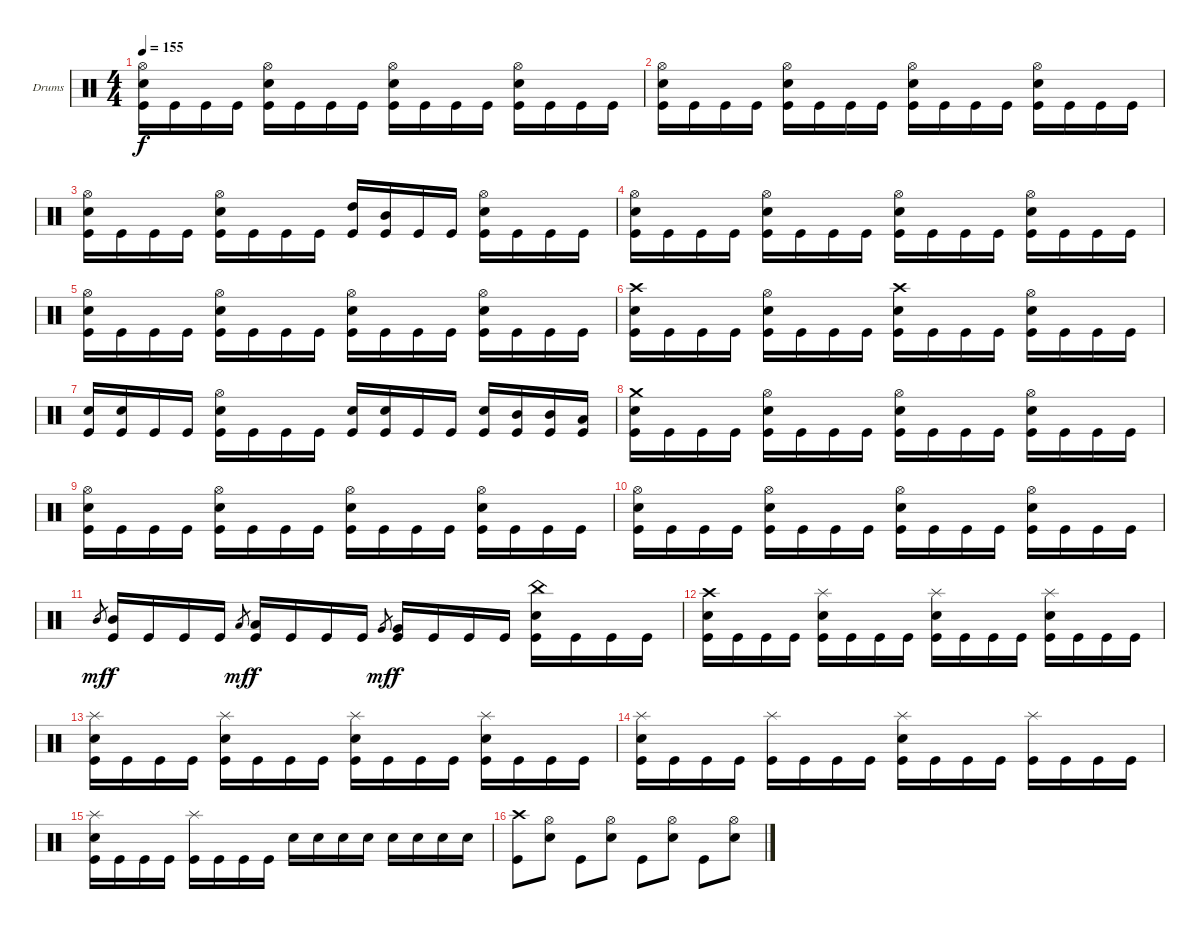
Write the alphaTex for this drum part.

\defaultSystemsLayout 4
\bracketExtendMode groupsimilarinstruments
\firstSystemTrackNameOrientation horizontal
\otherSystemsTrackNameOrientation horizontal
\track ("Drumkit" "Drums") {instrument percussion}
\staff {score}
\articulation defaults
\ts (4 4)
\tempo 155
\clef neutral
\ks c
("Kick (hit)" "Snare (hit) 2" "Hi-Hat (open)").16{dy f} "Kick (hit)".16 "Kick (hit)".16 "Kick (hit)".16 ("Kick (hit)" "Snare (hit) 2" "Hi-Hat (open)").16 "Kick (hit)".16 "Kick (hit)".16 "Kick (hit)".16 ("Kick (hit)" "Snare (hit) 2" "Hi-Hat (open)").16 "Kick (hit)".16 "Kick (hit)".16 "Kick (hit)".16 ("Kick (hit)" "Snare (hit) 2" "Hi-Hat (open)").16 "Kick (hit)".16 "Kick (hit)".16 "Kick (hit)".16 |
("Kick (hit)" "Snare (hit) 2" "Hi-Hat (open)").16 "Kick (hit)".16 "Kick (hit)".16 "Kick (hit)".16 ("Kick (hit)" "Snare (hit) 2" "Hi-Hat (open)").16 "Kick (hit)".16 "Kick (hit)".16 "Kick (hit)".16 ("Kick (hit)" "Snare (hit) 2" "Hi-Hat (open)").16 "Kick (hit)".16 "Kick (hit)".16 "Kick (hit)".16 ("Kick (hit)" "Snare (hit) 2" "Hi-Hat (open)").16 "Kick (hit)".16 "Kick (hit)".16 "Kick (hit)".16 |
("Kick (hit)" "Snare (hit) 2" "Hi-Hat (open)").16 "Kick (hit)".16 "Kick (hit)".16 "Kick (hit)".16 ("Kick (hit)" "Snare (hit) 2" "Hi-Hat (open)").16 "Kick (hit)".16 "Kick (hit)".16 "Kick (hit)".16 ("Kick (hit)" "High Tom (hit)").16 ("Kick (hit)" "Mid Tom (hit)").16 "Kick (hit)".16 "Kick (hit)".16 ("Kick (hit)" "Snare (hit) 2" "Hi-Hat (open)").16 "Kick (hit)".16 "Kick (hit)".16 "Kick (hit)".16 |
("Kick (hit)" "Snare (hit) 2" "Hi-Hat (open)").16 "Kick (hit)".16 "Kick (hit)".16 "Kick (hit)".16 ("Kick (hit)" "Snare (hit) 2" "Hi-Hat (open)").16 "Kick (hit)".16 "Kick (hit)".16 "Kick (hit)".16 ("Kick (hit)" "Snare (hit) 2" "Hi-Hat (open)").16 "Kick (hit)".16 "Kick (hit)".16 "Kick (hit)".16 ("Kick (hit)" "Snare (hit) 2" "Hi-Hat (open)").16 "Kick (hit)".16 "Kick (hit)".16 "Kick (hit)".16 |
("Kick (hit)" "Snare (hit) 2" "Hi-Hat (open)").16 "Kick (hit)".16 "Kick (hit)".16 "Kick (hit)".16 ("Kick (hit)" "Snare (hit) 2" "Hi-Hat (open)").16 "Kick (hit)".16 "Kick (hit)".16 "Kick (hit)".16 ("Kick (hit)" "Snare (hit) 2" "Hi-Hat (open)").16 "Kick (hit)".16 "Kick (hit)".16 "Kick (hit)".16 ("Kick (hit)" "Snare (hit) 2" "Hi-Hat (open)").16 "Kick (hit)".16 "Kick (hit)".16 "Kick (hit)".16 |
("Kick (hit)" "Snare (hit) 2" "Crash high (hit)").16 "Kick (hit)".16 "Kick (hit)".16 "Kick (hit)".16 ("Kick (hit)" "Snare (hit) 2" "Hi-Hat (open)").16 "Kick (hit)".16 "Kick (hit)".16 "Kick (hit)".16 ("Kick (hit)" "Snare (hit) 2" "Crash high (hit)").16 "Kick (hit)".16 "Kick (hit)".16 "Kick (hit)".16 ("Kick (hit)" "Snare (hit) 2" "Hi-Hat (open)").16 "Kick (hit)".16 "Kick (hit)".16 "Kick (hit)".16 |
("Kick (hit)" "Snare (hit) 2").16 ("Kick (hit)" "Snare (hit) 2").16 "Kick (hit)".16 "Kick (hit)".16 ("Kick (hit)" "Snare (hit) 2" "Hi-Hat (open)").16 "Kick (hit)".16 "Kick (hit)".16 "Kick (hit)".16 ("Kick (hit)" "Snare (hit) 2").16 ("Kick (hit)" "Snare (hit) 2").16 "Kick (hit)".16 "Kick (hit)".16 ("Kick (hit)" "Snare (hit) 2").16 ("Kick (hit)" "Mid Tom (hit)").16 ("Kick (hit)" "Mid Tom (hit)").16 ("Kick (hit)" "Low Tom (hit)").16 |
("Kick (hit)" "Snare (hit) 2" "Crash medium (hit)").16 "Kick (hit)".16 "Kick (hit)".16 "Kick (hit)".16 ("Kick (hit)" "Snare (hit) 2" "Hi-Hat (open)").16 "Kick (hit)".16 "Kick (hit)".16 "Kick (hit)".16 ("Kick (hit)" "Snare (hit) 2" "Hi-Hat (open)").16 "Kick (hit)".16 "Kick (hit)".16 "Kick (hit)".16 ("Kick (hit)" "Snare (hit) 2" "Hi-Hat (open)").16 "Kick (hit)".16 "Kick (hit)".16 "Kick (hit)".16 |
("Kick (hit)" "Snare (hit) 2" "Hi-Hat (open)").16 "Kick (hit)".16 "Kick (hit)".16 "Kick (hit)".16 ("Kick (hit)" "Snare (hit) 2" "Hi-Hat (open)").16 "Kick (hit)".16 "Kick (hit)".16 "Kick (hit)".16 ("Kick (hit)" "Snare (hit) 2" "Hi-Hat (open)").16 "Kick (hit)".16 "Kick (hit)".16 "Kick (hit)".16 ("Kick (hit)" "Snare (hit) 2" "Hi-Hat (open)").16 "Kick (hit)".16 "Kick (hit)".16 "Kick (hit)".16 |
("Kick (hit)" "Snare (hit) 2" "Hi-Hat (open)").16 "Kick (hit)".16 "Kick (hit)".16 "Kick (hit)".16 ("Kick (hit)" "Snare (hit) 2" "Hi-Hat (open)").16 "Kick (hit)".16 "Kick (hit)".16 "Kick (hit)".16 ("Kick (hit)" "Snare (hit) 2" "Hi-Hat (open)").16 "Kick (hit)".16 "Kick (hit)".16 "Kick (hit)".16 ("Kick (hit)" "Snare (hit) 2" "Hi-Hat (open)").16 "Kick (hit)".16 "Kick (hit)".16 "Kick (hit)".16 |
"Mid Tom (hit)".8{gr dy mf} ("Kick (hit)" "Mid Tom (hit)").16{dy f} "Kick (hit)".16 "Kick (hit)".16 "Kick (hit)".16 "Low Tom (hit)".8{gr dy mf} ("Kick (hit)" "Low Tom (hit)").16{dy f} "Kick (hit)".16 "Kick (hit)".16 "Kick (hit)".16 "Very Low Tom (hit)".8{gr dy mf} ("Kick (hit)" "Very Low Tom (hit)").16{dy f} "Kick (hit)".16 "Kick (hit)".16 "Kick (hit)".16 ("Kick (hit)" "Snare (hit) 2" "China (hit)").16 "Kick (hit)".16 "Kick (hit)".16 "Kick (hit)".16 |
("Kick (hit)" "Snare (hit) 2" "Crash high (hit)").16 "Kick (hit)".16 "Kick (hit)".16 "Kick (hit)".16 ("Kick (hit)" "Snare (hit) 2" "Splash (hit)").16 "Kick (hit)".16 "Kick (hit)".16 "Kick (hit)".16 ("Kick (hit)" "Snare (hit) 2" "Splash (hit)").16 "Kick (hit)".16 "Kick (hit)".16 "Kick (hit)".16 ("Kick (hit)" "Snare (hit) 2" "Splash (hit)").16 "Kick (hit)".16 "Kick (hit)".16 "Kick (hit)".16 |
("Kick (hit)" "Snare (hit) 2" "Splash (hit)").16 "Kick (hit)".16 "Kick (hit)".16 "Kick (hit)".16 ("Kick (hit)" "Snare (hit) 2" "Splash (hit)").16 "Kick (hit)".16 "Kick (hit)".16 "Kick (hit)".16 ("Kick (hit)" "Snare (hit) 2" "Splash (hit)").16 "Kick (hit)".16 "Kick (hit)".16 "Kick (hit)".16 ("Kick (hit)" "Snare (hit) 2" "Splash (hit)").16 "Kick (hit)".16 "Kick (hit)".16 "Kick (hit)".16 |
("Kick (hit)" "Snare (hit) 2" "Splash (hit)").16 "Kick (hit)".16 "Kick (hit)".16 "Kick (hit)".16 ("Kick (hit)" "Splash (hit)").16 "Kick (hit)".16 "Kick (hit)".16 "Kick (hit)".16 ("Kick (hit)" "Snare (hit) 2" "Splash (hit)").16 "Kick (hit)".16 "Kick (hit)".16 "Kick (hit)".16 ("Kick (hit)" "Splash (hit)").16 "Kick (hit)".16 "Kick (hit)".16 "Kick (hit)".16 |
("Kick (hit)" "Snare (hit) 2" "Splash (hit)").16 "Kick (hit)".16 "Kick (hit)".16 "Kick (hit)".16 ("Kick (hit)" "Splash (hit)").16 "Kick (hit)".16 "Kick (hit)".16 "Kick (hit)".16 "Snare (hit) 2".16 "Snare (hit) 2".16 "Snare (hit) 2".16 "Snare (hit) 2".16 "Snare (hit) 2".16 "Snare (hit) 2".16 "Snare (hit) 2".16 "Snare (hit) 2".16 |
("Kick (hit)" "Crash high (hit)").8 ("Snare (hit) 2" "Hi-Hat (open)").8 "Kick (hit)".8 ("Snare (hit) 2" "Hi-Hat (open)").8 "Kick (hit)".8 ("Snare (hit) 2" "Hi-Hat (open)").8 "Kick (hit)".8 ("Snare (hit) 2" "Hi-Hat (open)").8
